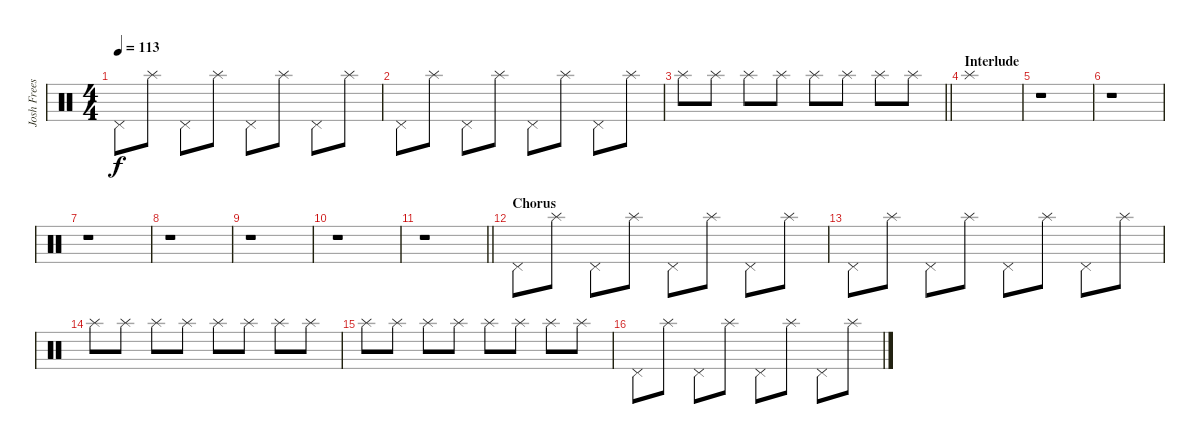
\track ("Josh Freese (Studio Drummer)" "Josh Frees") {instrument percussion}
\staff {score}
\articulation defaults
\ts (4 4)
\tempo 113
\clef neutral
\ks c "Pedal Hi-Hat (hit)".8{dy f} "Splash (hit)".8 "Pedal Hi-Hat (hit)".8 "Splash (hit)".8 "Pedal Hi-Hat (hit)".8 "Splash (hit)".8 "Pedal Hi-Hat (hit)".8 "Splash (hit)".8
|
"Pedal Hi-Hat (hit)".8 "Splash (hit)".8 "Pedal Hi-Hat (hit)".8 "Splash (hit)".8 "Pedal Hi-Hat (hit)".8 "Splash (hit)".8 "Pedal Hi-Hat (hit)".8 "Splash (hit)".8 |
\barLineRight lightlight "Splash (hit)".8 "Splash (hit)".8 "Splash (hit)".8 "Splash (hit)".8 "Splash (hit)".8 "Splash (hit)".8 "Splash (hit)".8 "Splash (hit)".8
|
\section ("" "Interlude")
"Splash (hit)".1 |
r.1 |
r.1 |
r.1 |
r.1 |
r.1 |
r.1 |
\barLineRight lightlight
r.1 |
\section ("" "Chorus")
"Pedal Hi-Hat (hit)".8 "Splash (hit)".8 "Pedal Hi-Hat (hit)".8 "Splash (hit)".8 "Pedal Hi-Hat (hit)".8 "Splash (hit)".8 "Pedal Hi-Hat (hit)".8 "Splash (hit)".8 |
"Pedal Hi-Hat (hit)".8 "Splash (hit)".8 "Pedal Hi-Hat (hit)".8 "Splash (hit)".8 "Pedal Hi-Hat (hit)".8 "Splash (hit)".8 "Pedal Hi-Hat (hit)".8 "Splash (hit)".8 |
"Splash (hit)".8 "Splash (hit)".8 "Splash (hit)".8 "Splash (hit)".8 "Splash (hit)".8 "Splash (hit)".8 "Splash (hit)".8 "Splash (hit)".8 |
"Splash (hit)".8 "Splash (hit)".8 "Splash (hit)".8 "Splash (hit)".8 "Splash (hit)".8 "Splash (hit)".8 "Splash (hit)".8 "Splash (hit)".8 |
"Pedal Hi-Hat (hit)".8 "Splash (hit)".8 "Pedal Hi-Hat (hit)".8 "Splash (hit)".8 "Pedal Hi-Hat (hit)".8 "Splash (hit)".8 "Pedal Hi-Hat (hit)".8 "Splash (hit)".8
